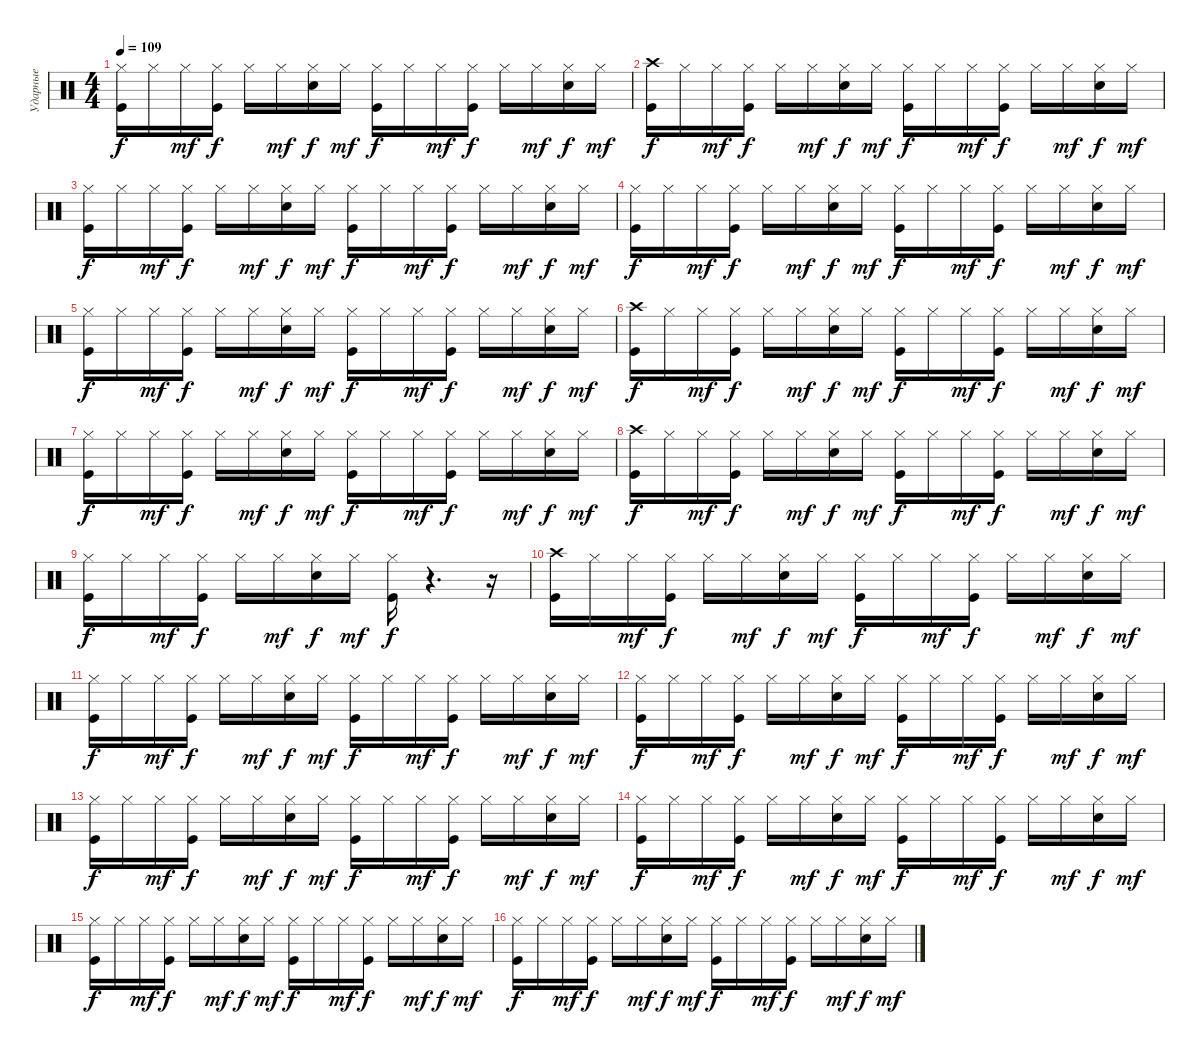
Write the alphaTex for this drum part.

\track ("Ударные" "Ударные") {instrument percussion}
\staff {score}
\articulation defaults
\ts (4 4)
\tempo 109
\clef neutral
\ks c
("Hi-Hat (closed)" "Kick (hit)").16{dy f} "Hi-Hat (closed)".16 "Hi-Hat (closed)".16{dy mf} ("Kick (hit)" "Hi-Hat (closed)").16{dy f} "Hi-Hat (closed)".16 "Hi-Hat (closed)".16{dy mf} ("Hi-Hat (closed)" "Electric Snare (hit)").16{dy f} "Hi-Hat (closed)".16{dy mf} ("Kick (hit)" "Hi-Hat (closed)").16{dy f} "Hi-Hat (closed)".16 "Hi-Hat (closed)".16{dy mf} ("Kick (hit)" "Hi-Hat (closed)").16{dy f} "Hi-Hat (closed)".16 "Hi-Hat (closed)".16{dy mf} ("Hi-Hat (closed)" "Electric Snare (hit)").16{dy f} "Hi-Hat (closed)".16{dy mf} |
("Kick (hit)" "Crash high (hit)").16{dy f} "Hi-Hat (closed)".16 "Hi-Hat (closed)".16{dy mf} ("Hi-Hat (closed)" "Kick (hit)").16{dy f} "Hi-Hat (closed)".16 "Hi-Hat (closed)".16{dy mf} ("Hi-Hat (closed)" "Electric Snare (hit)").16{dy f} "Hi-Hat (closed)".16{dy mf} ("Kick (hit)" "Hi-Hat (closed)").16{dy f} "Hi-Hat (closed)".16 "Hi-Hat (closed)".16{dy mf} ("Kick (hit)" "Hi-Hat (closed)").16{dy f} "Hi-Hat (closed)".16 "Hi-Hat (closed)".16{dy mf} ("Electric Snare (hit)" "Hi-Hat (closed)").16{dy f} "Hi-Hat (closed)".16{dy mf} |
("Kick (hit)" "Hi-Hat (closed)").16{dy f} "Hi-Hat (closed)".16 "Hi-Hat (closed)".16{dy mf} ("Kick (hit)" "Hi-Hat (closed)").16{dy f} "Hi-Hat (closed)".16 "Hi-Hat (closed)".16{dy mf} ("Hi-Hat (closed)" "Electric Snare (hit)").16{dy f} "Hi-Hat (closed)".16{dy mf} ("Kick (hit)" "Hi-Hat (closed)").16{dy f} "Hi-Hat (closed)".16 "Hi-Hat (closed)".16{dy mf} ("Kick (hit)" "Hi-Hat (closed)").16{dy f} "Hi-Hat (closed)".16 "Hi-Hat (closed)".16{dy mf} ("Electric Snare (hit)" "Hi-Hat (closed)").16{dy f} "Hi-Hat (closed)".16{dy mf} |
("Kick (hit)" "Hi-Hat (closed)").16{dy f} "Hi-Hat (closed)".16 "Hi-Hat (closed)".16{dy mf} ("Kick (hit)" "Hi-Hat (closed)").16{dy f} "Hi-Hat (closed)".16 "Hi-Hat (closed)".16{dy mf} ("Electric Snare (hit)" "Hi-Hat (closed)").16{dy f} "Hi-Hat (closed)".16{dy mf} ("Kick (hit)" "Hi-Hat (closed)").16{dy f} "Hi-Hat (closed)".16 "Hi-Hat (closed)".16{dy mf} ("Kick (hit)" "Hi-Hat (closed)").16{dy f} "Hi-Hat (closed)".16 "Hi-Hat (closed)".16{dy mf} ("Hi-Hat (closed)" "Electric Snare (hit)").16{dy f} "Hi-Hat (closed)".16{dy mf} |
("Hi-Hat (closed)" "Kick (hit)").16{dy f} "Hi-Hat (closed)".16 "Hi-Hat (closed)".16{dy mf} ("Kick (hit)" "Hi-Hat (closed)").16{dy f} "Hi-Hat (closed)".16 "Hi-Hat (closed)".16{dy mf} ("Electric Snare (hit)" "Hi-Hat (closed)").16{dy f} "Hi-Hat (closed)".16{dy mf} ("Kick (hit)" "Hi-Hat (closed)").16{dy f} "Hi-Hat (closed)".16 "Hi-Hat (closed)".16{dy mf} ("Hi-Hat (closed)" "Kick (hit)").16{dy f} "Hi-Hat (closed)".16 "Hi-Hat (closed)".16{dy mf} ("Hi-Hat (closed)" "Electric Snare (hit)").16{dy f} "Hi-Hat (closed)".16{dy mf} |
("Crash high (hit)" "Kick (hit)").16{dy f} "Hi-Hat (closed)".16 "Hi-Hat (closed)".16{dy mf} ("Hi-Hat (closed)" "Kick (hit)").16{dy f} "Hi-Hat (closed)".16 "Hi-Hat (closed)".16{dy mf} ("Hi-Hat (closed)" "Electric Snare (hit)").16{dy f} "Hi-Hat (closed)".16{dy mf} ("Kick (hit)" "Hi-Hat (closed)").16{dy f} "Hi-Hat (closed)".16 "Hi-Hat (closed)".16{dy mf} ("Hi-Hat (closed)" "Kick (hit)").16{dy f} "Hi-Hat (closed)".16 "Hi-Hat (closed)".16{dy mf} ("Electric Snare (hit)" "Hi-Hat (closed)").16{dy f} "Hi-Hat (closed)".16{dy mf} |
("Hi-Hat (closed)" "Kick (hit)").16{dy f} "Hi-Hat (closed)".16 "Hi-Hat (closed)".16{dy mf} ("Kick (hit)" "Hi-Hat (closed)").16{dy f} "Hi-Hat (closed)".16 "Hi-Hat (closed)".16{dy mf} ("Electric Snare (hit)" "Hi-Hat (closed)").16{dy f} "Hi-Hat (closed)".16{dy mf} ("Kick (hit)" "Hi-Hat (closed)").16{dy f} "Hi-Hat (closed)".16 "Hi-Hat (closed)".16{dy mf} ("Kick (hit)" "Hi-Hat (closed)").16{dy f} "Hi-Hat (closed)".16 "Hi-Hat (closed)".16{dy mf} ("Hi-Hat (closed)" "Electric Snare (hit)").16{dy f} "Hi-Hat (closed)".16{dy mf} |
("Crash high (hit)" "Kick (hit)").16{dy f} "Hi-Hat (closed)".16 "Hi-Hat (closed)".16{dy mf} ("Hi-Hat (closed)" "Kick (hit)").16{dy f} "Hi-Hat (closed)".16 "Hi-Hat (closed)".16{dy mf} ("Hi-Hat (closed)" "Electric Snare (hit)").16{dy f} "Hi-Hat (closed)".16{dy mf} ("Kick (hit)" "Hi-Hat (closed)").16{dy f} "Hi-Hat (closed)".16 "Hi-Hat (closed)".16{dy mf} ("Kick (hit)" "Hi-Hat (closed)").16{dy f} "Hi-Hat (closed)".16 "Hi-Hat (closed)".16{dy mf} ("Hi-Hat (closed)" "Electric Snare (hit)").16{dy f} "Hi-Hat (closed)".16{dy mf} |
("Kick (hit)" "Hi-Hat (closed)").16{dy f} "Hi-Hat (closed)".16 "Hi-Hat (closed)".16{dy mf} ("Kick (hit)" "Hi-Hat (closed)").16{dy f} "Hi-Hat (closed)".16 "Hi-Hat (closed)".16{dy mf} ("Hi-Hat (closed)" "Electric Snare (hit)").16{dy f} "Hi-Hat (closed)".16{dy mf} ("Hi-Hat (closed)" "Kick (hit)").16{dy f} r.4{d} r.16 |
("Kick (hit)" "Crash high (hit)").16 "Hi-Hat (closed)".16 "Hi-Hat (closed)".16{dy mf} ("Hi-Hat (closed)" "Kick (hit)").16{dy f} "Hi-Hat (closed)".16 "Hi-Hat (closed)".16{dy mf} ("Hi-Hat (closed)" "Electric Snare (hit)").16{dy f} "Hi-Hat (closed)".16{dy mf} ("Hi-Hat (closed)" "Kick (hit)").16{dy f} "Hi-Hat (closed)".16 "Hi-Hat (closed)".16{dy mf} ("Hi-Hat (closed)" "Kick (hit)").16{dy f} "Hi-Hat (closed)".16 "Hi-Hat (closed)".16{dy mf} ("Electric Snare (hit)" "Hi-Hat (closed)").16{dy f} "Hi-Hat (closed)".16{dy mf} |
("Kick (hit)" "Hi-Hat (closed)").16{dy f} "Hi-Hat (closed)".16 "Hi-Hat (closed)".16{dy mf} ("Hi-Hat (closed)" "Kick (hit)").16{dy f} "Hi-Hat (closed)".16 "Hi-Hat (closed)".16{dy mf} ("Electric Snare (hit)" "Hi-Hat (closed)").16{dy f} "Hi-Hat (closed)".16{dy mf} ("Kick (hit)" "Hi-Hat (closed)").16{dy f} "Hi-Hat (closed)".16 "Hi-Hat (closed)".16{dy mf} ("Hi-Hat (closed)" "Kick (hit)").16{dy f} "Hi-Hat (closed)".16 "Hi-Hat (closed)".16{dy mf} ("Electric Snare (hit)" "Hi-Hat (closed)").16{dy f} "Hi-Hat (closed)".16{dy mf} |
("Hi-Hat (closed)" "Kick (hit)").16{dy f} "Hi-Hat (closed)".16 "Hi-Hat (closed)".16{dy mf} ("Hi-Hat (closed)" "Kick (hit)").16{dy f} "Hi-Hat (closed)".16 "Hi-Hat (closed)".16{dy mf} ("Hi-Hat (closed)" "Electric Snare (hit)").16{dy f} "Hi-Hat (closed)".16{dy mf} ("Kick (hit)" "Hi-Hat (closed)").16{dy f} "Hi-Hat (closed)".16 "Hi-Hat (closed)".16{dy mf} ("Kick (hit)" "Hi-Hat (closed)").16{dy f} "Hi-Hat (closed)".16 "Hi-Hat (closed)".16{dy mf} ("Electric Snare (hit)" "Hi-Hat (closed)").16{dy f} "Hi-Hat (closed)".16{dy mf} |
("Kick (hit)" "Hi-Hat (closed)").16{dy f} "Hi-Hat (closed)".16 "Hi-Hat (closed)".16{dy mf} ("Kick (hit)" "Hi-Hat (closed)").16{dy f} "Hi-Hat (closed)".16 "Hi-Hat (closed)".16{dy mf} ("Hi-Hat (closed)" "Electric Snare (hit)").16{dy f} "Hi-Hat (closed)".16{dy mf} ("Kick (hit)" "Hi-Hat (closed)").16{dy f} "Hi-Hat (closed)".16 "Hi-Hat (closed)".16{dy mf} ("Kick (hit)" "Hi-Hat (closed)").16{dy f} "Hi-Hat (closed)".16 "Hi-Hat (closed)".16{dy mf} ("Electric Snare (hit)" "Hi-Hat (closed)").16{dy f} "Hi-Hat (closed)".16{dy mf} |
("Kick (hit)" "Hi-Hat (closed)").16{dy f} "Hi-Hat (closed)".16 "Hi-Hat (closed)".16{dy mf} ("Kick (hit)" "Hi-Hat (closed)").16{dy f} "Hi-Hat (closed)".16 "Hi-Hat (closed)".16{dy mf} ("Hi-Hat (closed)" "Electric Snare (hit)").16{dy f} "Hi-Hat (closed)".16{dy mf} ("Hi-Hat (closed)" "Kick (hit)").16{dy f} "Hi-Hat (closed)".16 "Hi-Hat (closed)".16{dy mf} ("Kick (hit)" "Hi-Hat (closed)").16{dy f} "Hi-Hat (closed)".16 "Hi-Hat (closed)".16{dy mf} ("Hi-Hat (closed)" "Electric Snare (hit)").16{dy f} "Hi-Hat (closed)".16{dy mf} |
("Kick (hit)" "Hi-Hat (closed)").16{dy f} "Hi-Hat (closed)".16 "Hi-Hat (closed)".16{dy mf} ("Kick (hit)" "Hi-Hat (closed)").16{dy f} "Hi-Hat (closed)".16 "Hi-Hat (closed)".16{dy mf} ("Electric Snare (hit)" "Hi-Hat (closed)").16{dy f} "Hi-Hat (closed)".16{dy mf} ("Hi-Hat (closed)" "Kick (hit)").16{dy f} "Hi-Hat (closed)".16 "Hi-Hat (closed)".16{dy mf} ("Kick (hit)" "Hi-Hat (closed)").16{dy f} "Hi-Hat (closed)".16 "Hi-Hat (closed)".16{dy mf} ("Hi-Hat (closed)" "Electric Snare (hit)").16{dy f} "Hi-Hat (closed)".16{dy mf} |
("Hi-Hat (closed)" "Kick (hit)").16{dy f} "Hi-Hat (closed)".16 "Hi-Hat (closed)".16{dy mf} ("Hi-Hat (closed)" "Kick (hit)").16{dy f} "Hi-Hat (closed)".16 "Hi-Hat (closed)".16{dy mf} ("Electric Snare (hit)" "Hi-Hat (closed)").16{dy f} "Hi-Hat (closed)".16{dy mf} ("Kick (hit)" "Hi-Hat (closed)").16{dy f} "Hi-Hat (closed)".16 "Hi-Hat (closed)".16{dy mf} ("Hi-Hat (closed)" "Kick (hit)").16{dy f} "Hi-Hat (closed)".16 "Hi-Hat (closed)".16{dy mf} ("Electric Snare (hit)" "Hi-Hat (closed)").16{dy f} "Hi-Hat (closed)".16{dy mf}
